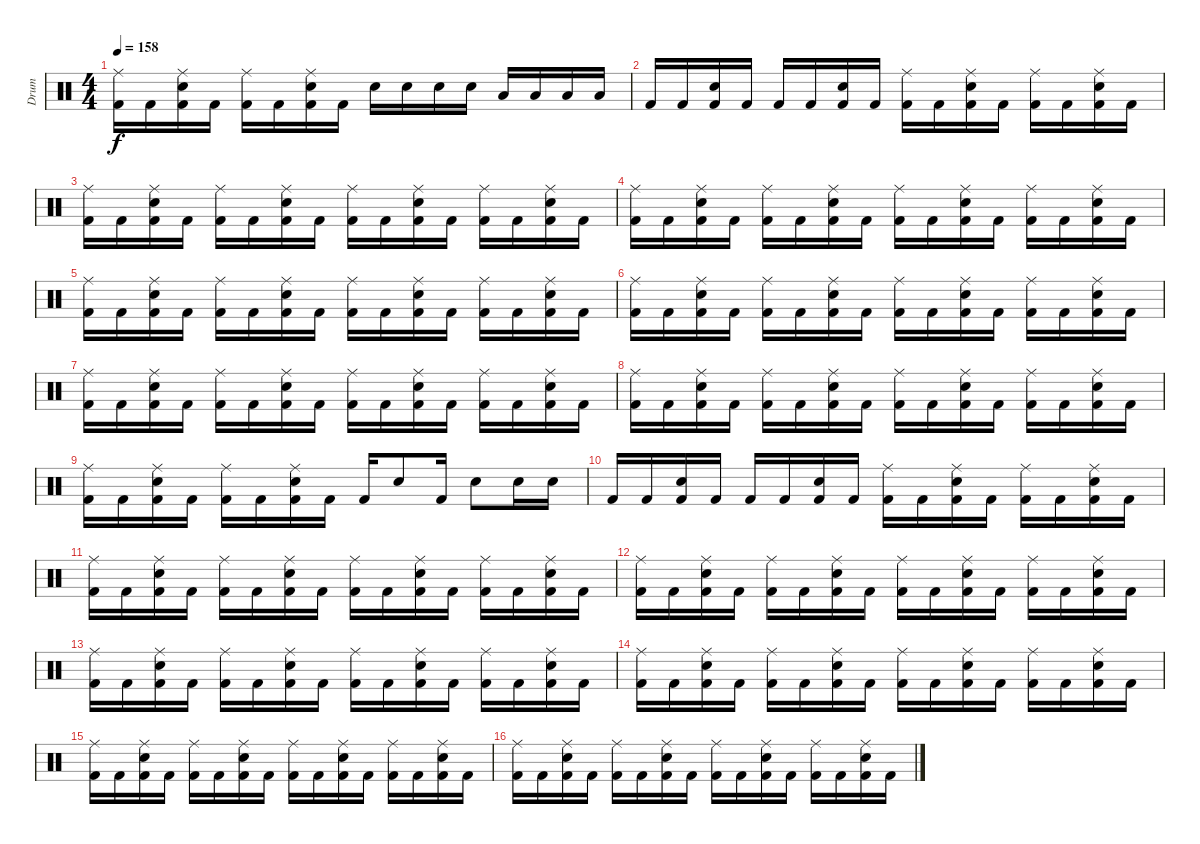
\track ("Drum" "Drum") {instrument percussion}
\staff {score}
\articulation defaults
\ts (4 4)
\tempo 158
\clef neutral
\ks c
("Kick (hit) 2" "Ride (middle)").16{dy f} "Kick (hit) 2".16 ("Electric Snare (hit)" "Kick (hit) 2" "Ride (middle)").16 "Kick (hit) 2".16 ("Kick (hit) 2" "Ride (middle)").16 "Kick (hit) 2".16 ("Electric Snare (hit)" "Kick (hit) 2" "Ride (middle)").16 "Kick (hit) 2".16 "Electric Snare (hit)".16 "Electric Snare (hit)".16 "Electric Snare (hit)".16 "Electric Snare (hit)".16 "Low Floor Tom (hit)".16 "Low Floor Tom (hit)".16 "Low Floor Tom (hit)".16 "Low Floor Tom (hit)".16 |
"Kick (hit) 2".16 "Kick (hit) 2".16 ("Electric Snare (hit)" "Kick (hit) 2").16 "Kick (hit) 2".16 "Kick (hit) 2".16 "Kick (hit) 2".16 ("Electric Snare (hit)" "Kick (hit) 2").16 "Kick (hit) 2".16 ("Kick (hit) 2" "Ride (middle)").16 "Kick (hit) 2".16 ("Electric Snare (hit)" "Kick (hit) 2" "Ride (middle)").16 "Kick (hit) 2".16 ("Kick (hit) 2" "Ride (middle)").16 "Kick (hit) 2".16 ("Electric Snare (hit)" "Kick (hit) 2" "Ride (middle)").16 "Kick (hit) 2".16 |
("Kick (hit) 2" "Ride (middle)").16 "Kick (hit) 2".16 ("Electric Snare (hit)" "Kick (hit) 2" "Ride (middle)").16 "Kick (hit) 2".16 ("Kick (hit) 2" "Ride (middle)").16 "Kick (hit) 2".16 ("Electric Snare (hit)" "Kick (hit) 2" "Ride (middle)").16 "Kick (hit) 2".16 ("Kick (hit) 2" "Ride (middle)").16 "Kick (hit) 2".16 ("Electric Snare (hit)" "Kick (hit) 2" "Ride (middle)").16 "Kick (hit) 2".16 ("Kick (hit) 2" "Ride (middle)").16 "Kick (hit) 2".16 ("Electric Snare (hit)" "Kick (hit) 2" "Ride (middle)").16 "Kick (hit) 2".16 |
("Kick (hit) 2" "Ride (middle)").16 "Kick (hit) 2".16 ("Electric Snare (hit)" "Kick (hit) 2" "Ride (middle)").16 "Kick (hit) 2".16 ("Kick (hit) 2" "Ride (middle)").16 "Kick (hit) 2".16 ("Electric Snare (hit)" "Kick (hit) 2" "Ride (middle)").16 "Kick (hit) 2".16 ("Kick (hit) 2" "Ride (middle)").16 "Kick (hit) 2".16 ("Electric Snare (hit)" "Kick (hit) 2" "Ride (middle)").16 "Kick (hit) 2".16 ("Kick (hit) 2" "Ride (middle)").16 "Kick (hit) 2".16 ("Electric Snare (hit)" "Kick (hit) 2" "Ride (middle)").16 "Kick (hit) 2".16 |
("Kick (hit) 2" "Ride (middle)").16 "Kick (hit) 2".16 ("Electric Snare (hit)" "Kick (hit) 2" "Ride (middle)").16 "Kick (hit) 2".16 ("Kick (hit) 2" "Ride (middle)").16 "Kick (hit) 2".16 ("Electric Snare (hit)" "Kick (hit) 2" "Ride (middle)").16 "Kick (hit) 2".16 ("Kick (hit) 2" "Ride (middle)").16 "Kick (hit) 2".16 ("Electric Snare (hit)" "Kick (hit) 2" "Ride (middle)").16 "Kick (hit) 2".16 ("Kick (hit) 2" "Ride (middle)").16 "Kick (hit) 2".16 ("Electric Snare (hit)" "Kick (hit) 2" "Ride (middle)").16 "Kick (hit) 2".16 |
("Kick (hit) 2" "Ride (middle)").16 "Kick (hit) 2".16 ("Electric Snare (hit)" "Kick (hit) 2" "Ride (middle)").16 "Kick (hit) 2".16 ("Kick (hit) 2" "Ride (middle)").16 "Kick (hit) 2".16 ("Electric Snare (hit)" "Kick (hit) 2" "Ride (middle)").16 "Kick (hit) 2".16 ("Kick (hit) 2" "Ride (middle)").16 "Kick (hit) 2".16 ("Electric Snare (hit)" "Kick (hit) 2" "Ride (middle)").16 "Kick (hit) 2".16 ("Kick (hit) 2" "Ride (middle)").16 "Kick (hit) 2".16 ("Electric Snare (hit)" "Kick (hit) 2" "Ride (middle)").16 "Kick (hit) 2".16 |
("Kick (hit) 2" "Ride (middle)").16 "Kick (hit) 2".16 ("Electric Snare (hit)" "Kick (hit) 2" "Ride (middle)").16 "Kick (hit) 2".16 ("Kick (hit) 2" "Ride (middle)").16 "Kick (hit) 2".16 ("Electric Snare (hit)" "Kick (hit) 2" "Ride (middle)").16 "Kick (hit) 2".16 ("Kick (hit) 2" "Ride (middle)").16 "Kick (hit) 2".16 ("Electric Snare (hit)" "Kick (hit) 2" "Ride (middle)").16 "Kick (hit) 2".16 ("Kick (hit) 2" "Ride (middle)").16 "Kick (hit) 2".16 ("Electric Snare (hit)" "Kick (hit) 2" "Ride (middle)").16 "Kick (hit) 2".16 |
("Kick (hit) 2" "Ride (middle)").16 "Kick (hit) 2".16 ("Electric Snare (hit)" "Kick (hit) 2" "Ride (middle)").16 "Kick (hit) 2".16 ("Kick (hit) 2" "Ride (middle)").16 "Kick (hit) 2".16 ("Electric Snare (hit)" "Kick (hit) 2" "Ride (middle)").16 "Kick (hit) 2".16 ("Kick (hit) 2" "Ride (middle)").16 "Kick (hit) 2".16 ("Electric Snare (hit)" "Kick (hit) 2" "Ride (middle)").16 "Kick (hit) 2".16 ("Kick (hit) 2" "Ride (middle)").16 "Kick (hit) 2".16 ("Electric Snare (hit)" "Kick (hit) 2" "Ride (middle)").16 "Kick (hit) 2".16 |
("Kick (hit) 2" "Ride (middle)").16 "Kick (hit) 2".16 ("Electric Snare (hit)" "Kick (hit) 2" "Ride (middle)").16 "Kick (hit) 2".16 ("Kick (hit) 2" "Ride (middle)").16 "Kick (hit) 2".16 ("Electric Snare (hit)" "Kick (hit) 2" "Ride (middle)").16 "Kick (hit) 2".16 "Kick (hit) 2".16 "Electric Snare (hit)".8 "Kick (hit) 2".16 "Electric Snare (hit)".8 "Electric Snare (hit)".16 "Electric Snare (hit)".16 |
"Kick (hit) 2".16 "Kick (hit) 2".16 ("Electric Snare (hit)" "Kick (hit) 2").16 "Kick (hit) 2".16 "Kick (hit) 2".16 "Kick (hit) 2".16 ("Electric Snare (hit)" "Kick (hit) 2").16 "Kick (hit) 2".16 ("Kick (hit) 2" "Ride (middle)").16 "Kick (hit) 2".16 ("Electric Snare (hit)" "Kick (hit) 2" "Ride (middle)").16 "Kick (hit) 2".16 ("Kick (hit) 2" "Ride (middle)").16 "Kick (hit) 2".16 ("Electric Snare (hit)" "Kick (hit) 2" "Ride (middle)").16 "Kick (hit) 2".16 |
("Kick (hit) 2" "Ride (middle)").16 "Kick (hit) 2".16 ("Electric Snare (hit)" "Kick (hit) 2" "Ride (middle)").16 "Kick (hit) 2".16 ("Kick (hit) 2" "Ride (middle)").16 "Kick (hit) 2".16 ("Electric Snare (hit)" "Kick (hit) 2" "Ride (middle)").16 "Kick (hit) 2".16 ("Kick (hit) 2" "Ride (middle)").16 "Kick (hit) 2".16 ("Electric Snare (hit)" "Kick (hit) 2" "Ride (middle)").16 "Kick (hit) 2".16 ("Kick (hit) 2" "Ride (middle)").16 "Kick (hit) 2".16 ("Electric Snare (hit)" "Kick (hit) 2" "Ride (middle)").16 "Kick (hit) 2".16 |
("Kick (hit) 2" "Ride (middle)").16 "Kick (hit) 2".16 ("Electric Snare (hit)" "Kick (hit) 2" "Ride (middle)").16 "Kick (hit) 2".16 ("Kick (hit) 2" "Ride (middle)").16 "Kick (hit) 2".16 ("Electric Snare (hit)" "Kick (hit) 2" "Ride (middle)").16 "Kick (hit) 2".16 ("Kick (hit) 2" "Ride (middle)").16 "Kick (hit) 2".16 ("Electric Snare (hit)" "Kick (hit) 2" "Ride (middle)").16 "Kick (hit) 2".16 ("Kick (hit) 2" "Ride (middle)").16 "Kick (hit) 2".16 ("Electric Snare (hit)" "Kick (hit) 2" "Ride (middle)").16 "Kick (hit) 2".16 |
("Kick (hit) 2" "Ride (middle)").16 "Kick (hit) 2".16 ("Electric Snare (hit)" "Kick (hit) 2" "Ride (middle)").16 "Kick (hit) 2".16 ("Kick (hit) 2" "Ride (middle)").16 "Kick (hit) 2".16 ("Electric Snare (hit)" "Kick (hit) 2" "Ride (middle)").16 "Kick (hit) 2".16 ("Kick (hit) 2" "Ride (middle)").16 "Kick (hit) 2".16 ("Electric Snare (hit)" "Kick (hit) 2" "Ride (middle)").16 "Kick (hit) 2".16 ("Kick (hit) 2" "Ride (middle)").16 "Kick (hit) 2".16 ("Electric Snare (hit)" "Kick (hit) 2" "Ride (middle)").16 "Kick (hit) 2".16 |
("Kick (hit) 2" "Ride (middle)").16 "Kick (hit) 2".16 ("Electric Snare (hit)" "Kick (hit) 2" "Ride (middle)").16 "Kick (hit) 2".16 ("Kick (hit) 2" "Ride (middle)").16 "Kick (hit) 2".16 ("Electric Snare (hit)" "Kick (hit) 2" "Ride (middle)").16 "Kick (hit) 2".16 ("Kick (hit) 2" "Ride (middle)").16 "Kick (hit) 2".16 ("Electric Snare (hit)" "Kick (hit) 2" "Ride (middle)").16 "Kick (hit) 2".16 ("Kick (hit) 2" "Ride (middle)").16 "Kick (hit) 2".16 ("Electric Snare (hit)" "Kick (hit) 2" "Ride (middle)").16 "Kick (hit) 2".16 |
("Kick (hit) 2" "Ride (middle)").16 "Kick (hit) 2".16 ("Electric Snare (hit)" "Kick (hit) 2" "Ride (middle)").16 "Kick (hit) 2".16 ("Kick (hit) 2" "Ride (middle)").16 "Kick (hit) 2".16 ("Electric Snare (hit)" "Kick (hit) 2" "Ride (middle)").16 "Kick (hit) 2".16 ("Kick (hit) 2" "Ride (middle)").16 "Kick (hit) 2".16 ("Electric Snare (hit)" "Kick (hit) 2" "Ride (middle)").16 "Kick (hit) 2".16 ("Kick (hit) 2" "Ride (middle)").16 "Kick (hit) 2".16 ("Electric Snare (hit)" "Kick (hit) 2" "Ride (middle)").16 "Kick (hit) 2".16 |
("Kick (hit) 2" "Ride (middle)").16 "Kick (hit) 2".16 ("Electric Snare (hit)" "Kick (hit) 2" "Ride (middle)").16 "Kick (hit) 2".16 ("Kick (hit) 2" "Ride (middle)").16 "Kick (hit) 2".16 ("Electric Snare (hit)" "Kick (hit) 2" "Ride (middle)").16 "Kick (hit) 2".16 ("Kick (hit) 2" "Ride (middle)").16 "Kick (hit) 2".16 ("Electric Snare (hit)" "Kick (hit) 2" "Ride (middle)").16 "Kick (hit) 2".16 ("Kick (hit) 2" "Ride (middle)").16 "Kick (hit) 2".16 ("Electric Snare (hit)" "Kick (hit) 2" "Ride (middle)").16 "Kick (hit) 2".16
